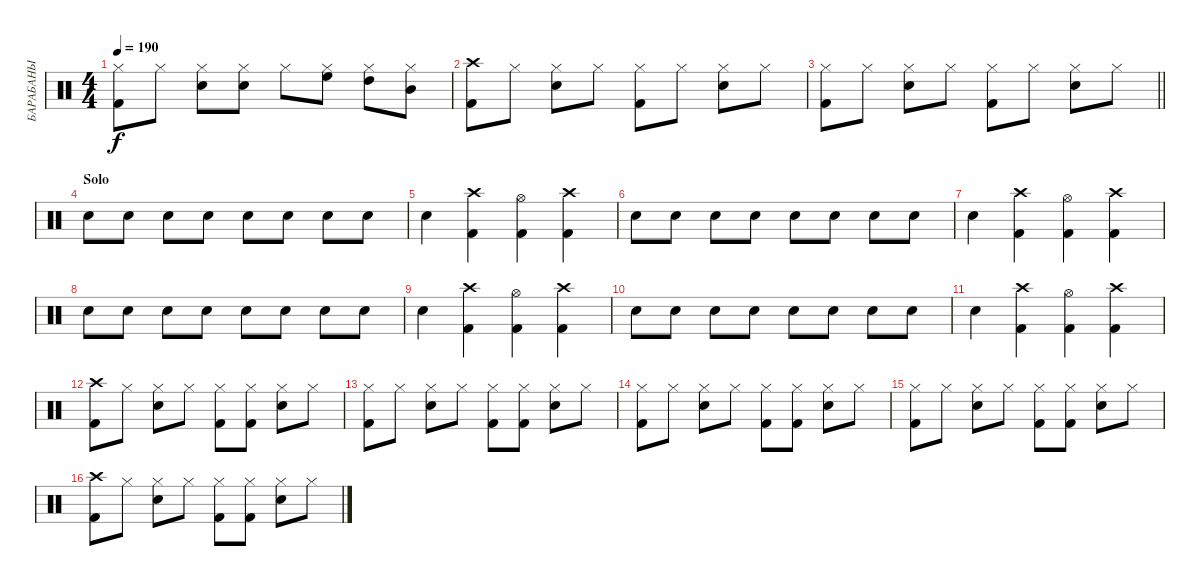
\track ("БАРАБАНЫ" "БАРАБАНЫ") {instrument percussion}
\staff {score}
\articulation defaults
\ts (4 4)
\tempo 190
\clef neutral
\ks c
("Hi-Hat (closed)" "Kick (hit) 2").8{dy f} "Hi-Hat (closed)".8 ("Hi-Hat (closed)" "Snare (hit) 2").8 ("Hi-Hat (closed)" "Snare (hit) 2").8 "Hi-Hat (closed)".8 ("Hi-Hat (closed)" "High Floor Tom (hit)").8 ("Hi-Hat (closed)" "High Tom (hit)").8 ("Hi-Hat (closed)" "Mid Tom (hit)").8 |
("Crash high (hit)" "Kick (hit) 2").8 "Hi-Hat (closed)".8 ("Hi-Hat (closed)" "Snare (hit) 2").8 "Hi-Hat (closed)".8 ("Hi-Hat (closed)" "Kick (hit) 2").8 "Hi-Hat (closed)".8 ("Hi-Hat (closed)" "Snare (hit) 2").8 "Hi-Hat (closed)".8 |
\barLineRight lightlight
("Hi-Hat (closed)" "Kick (hit) 2").8 "Hi-Hat (closed)".8 ("Hi-Hat (closed)" "Snare (hit) 2").8 "Hi-Hat (closed)".8 ("Hi-Hat (closed)" "Kick (hit) 2").8 "Hi-Hat (closed)".8 ("Hi-Hat (closed)" "Snare (hit) 2").8 "Hi-Hat (closed)".8 |
\section ("" "Solo")
"Snare (hit) 2".8 "Snare (hit) 2".8 "Snare (hit) 2".8 "Snare (hit) 2".8 "Snare (hit) 2".8 "Snare (hit) 2".8 "Snare (hit) 2".8 "Snare (hit) 2".8 |
"Snare (hit) 2".4 ("Crash high (hit)" "Kick (hit) 2").4 ("Hi-Hat (open)" "Kick (hit) 2").4 ("Crash high (hit)" "Kick (hit) 2").4 |
"Snare (hit) 2".8 "Snare (hit) 2".8 "Snare (hit) 2".8 "Snare (hit) 2".8 "Snare (hit) 2".8 "Snare (hit) 2".8 "Snare (hit) 2".8 "Snare (hit) 2".8 |
"Snare (hit) 2".4 ("Crash high (hit)" "Kick (hit) 2").4 ("Hi-Hat (open)" "Kick (hit) 2").4 ("Crash high (hit)" "Kick (hit) 2").4 |
"Snare (hit) 2".8 "Snare (hit) 2".8 "Snare (hit) 2".8 "Snare (hit) 2".8 "Snare (hit) 2".8 "Snare (hit) 2".8 "Snare (hit) 2".8 "Snare (hit) 2".8 |
"Snare (hit) 2".4 ("Crash high (hit)" "Kick (hit) 2").4 ("Hi-Hat (open)" "Kick (hit) 2").4 ("Crash high (hit)" "Kick (hit) 2").4 |
"Snare (hit) 2".8 "Snare (hit) 2".8 "Snare (hit) 2".8 "Snare (hit) 2".8 "Snare (hit) 2".8 "Snare (hit) 2".8 "Snare (hit) 2".8 "Snare (hit) 2".8 |
"Snare (hit) 2".4 ("Crash high (hit)" "Kick (hit) 2").4 ("Hi-Hat (open)" "Kick (hit) 2").4 ("Crash high (hit)" "Kick (hit) 2").4 |
("Crash high (hit)" "Kick (hit) 2").8 "Hi-Hat (closed)".8 ("Hi-Hat (closed)" "Snare (hit) 2").8 "Hi-Hat (closed)".8 ("Hi-Hat (closed)" "Kick (hit) 2").8 ("Hi-Hat (closed)" "Kick (hit) 2").8 ("Hi-Hat (closed)" "Snare (hit) 2").8 "Hi-Hat (closed)".8 |
("Hi-Hat (closed)" "Kick (hit) 2").8 "Hi-Hat (closed)".8 ("Hi-Hat (closed)" "Snare (hit) 2").8 "Hi-Hat (closed)".8 ("Hi-Hat (closed)" "Kick (hit) 2").8 ("Hi-Hat (closed)" "Kick (hit) 2").8 ("Hi-Hat (closed)" "Snare (hit) 2").8 "Hi-Hat (closed)".8 |
("Hi-Hat (closed)" "Kick (hit) 2").8 "Hi-Hat (closed)".8 ("Hi-Hat (closed)" "Snare (hit) 2").8 "Hi-Hat (closed)".8 ("Hi-Hat (closed)" "Kick (hit) 2").8 ("Hi-Hat (closed)" "Kick (hit) 2").8 ("Hi-Hat (closed)" "Snare (hit) 2").8 "Hi-Hat (closed)".8 |
("Hi-Hat (closed)" "Kick (hit) 2").8 "Hi-Hat (closed)".8 ("Hi-Hat (closed)" "Snare (hit) 2").8 "Hi-Hat (closed)".8 ("Hi-Hat (closed)" "Kick (hit) 2").8 ("Hi-Hat (closed)" "Kick (hit) 2").8 ("Hi-Hat (closed)" "Snare (hit) 2").8 "Hi-Hat (closed)".8 |
("Crash high (hit)" "Kick (hit) 2").8 "Hi-Hat (closed)".8 ("Hi-Hat (closed)" "Snare (hit) 2").8 "Hi-Hat (closed)".8 ("Hi-Hat (closed)" "Kick (hit) 2").8 ("Hi-Hat (closed)" "Kick (hit) 2").8 ("Hi-Hat (closed)" "Snare (hit) 2").8 "Hi-Hat (closed)".8
